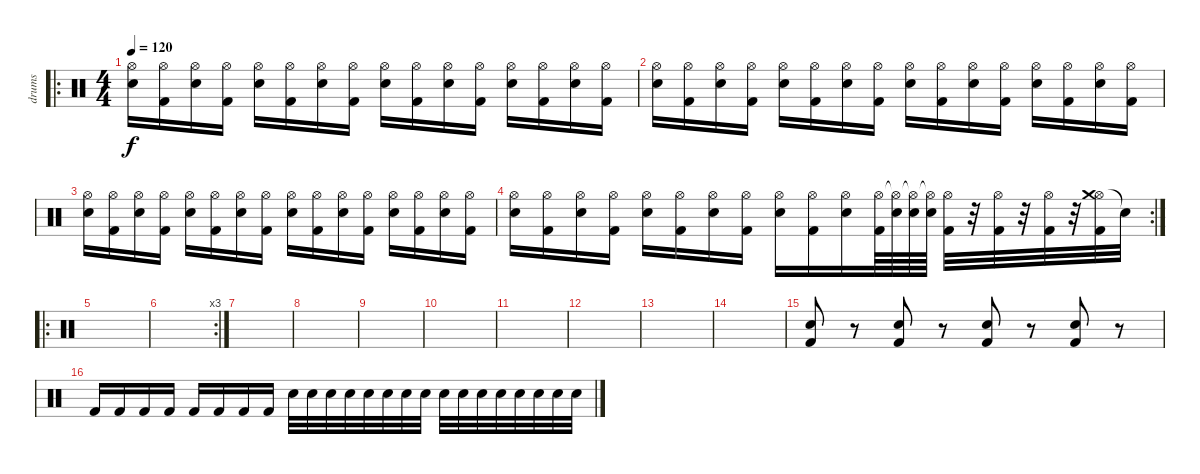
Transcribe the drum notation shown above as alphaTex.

\track ("drums" "drums") {instrument percussion}
\staff {score}
\articulation defaults
\ro
\ts (4 4)
\tempo 120
\clef neutral
\ks c
("Hi-Hat (open)" "Electric Snare (hit)").16{dy f} ("Hi-Hat (open)" "Kick (hit) 2").16 ("Hi-Hat (open)" "Electric Snare (hit)").16 ("Hi-Hat (open)" "Kick (hit) 2").16 ("Hi-Hat (open)" "Electric Snare (hit)").16 ("Hi-Hat (open)" "Kick (hit) 2").16 ("Hi-Hat (open)" "Electric Snare (hit)").16 ("Hi-Hat (open)" "Kick (hit) 2").16 ("Hi-Hat (open)" "Electric Snare (hit)").16 ("Hi-Hat (open)" "Kick (hit) 2").16 ("Hi-Hat (open)" "Electric Snare (hit)").16 ("Hi-Hat (open)" "Kick (hit) 2").16 ("Hi-Hat (open)" "Electric Snare (hit)").16 ("Hi-Hat (open)" "Kick (hit) 2").16 ("Hi-Hat (open)" "Electric Snare (hit)").16 ("Hi-Hat (open)" "Kick (hit) 2").16 |
("Hi-Hat (open)" "Electric Snare (hit)").16 ("Hi-Hat (open)" "Kick (hit) 2").16 ("Hi-Hat (open)" "Electric Snare (hit)").16 ("Hi-Hat (open)" "Kick (hit) 2").16 ("Hi-Hat (open)" "Electric Snare (hit)").16 ("Hi-Hat (open)" "Kick (hit) 2").16 ("Hi-Hat (open)" "Electric Snare (hit)").16 ("Hi-Hat (open)" "Kick (hit) 2").16 ("Hi-Hat (open)" "Electric Snare (hit)").16 ("Hi-Hat (open)" "Kick (hit) 2").16 ("Hi-Hat (open)" "Electric Snare (hit)").16 ("Hi-Hat (open)" "Kick (hit) 2").16 ("Hi-Hat (open)" "Electric Snare (hit)").16 ("Hi-Hat (open)" "Kick (hit) 2").16 ("Hi-Hat (open)" "Electric Snare (hit)").16 ("Hi-Hat (open)" "Kick (hit) 2").16 |
("Hi-Hat (open)" "Electric Snare (hit)").16 ("Hi-Hat (open)" "Kick (hit) 2").16 ("Hi-Hat (open)" "Electric Snare (hit)").16 ("Hi-Hat (open)" "Kick (hit) 2").16 ("Hi-Hat (open)" "Electric Snare (hit)").16 ("Hi-Hat (open)" "Kick (hit) 2").16 ("Hi-Hat (open)" "Electric Snare (hit)").16 ("Hi-Hat (open)" "Kick (hit) 2").16 ("Hi-Hat (open)" "Electric Snare (hit)").16 ("Hi-Hat (open)" "Kick (hit) 2").16 ("Hi-Hat (open)" "Electric Snare (hit)").16 ("Hi-Hat (open)" "Kick (hit) 2").16 ("Hi-Hat (open)" "Electric Snare (hit)").16 ("Hi-Hat (open)" "Kick (hit) 2").16 ("Hi-Hat (open)" "Electric Snare (hit)").16 ("Hi-Hat (open)" "Kick (hit) 2").16 |
\rc 2
("Hi-Hat (open)" "Electric Snare (hit)").16 ("Hi-Hat (open)" "Kick (hit) 2").16 ("Hi-Hat (open)" "Electric Snare (hit)").16 ("Hi-Hat (open)" "Kick (hit) 2").16 ("Hi-Hat (open)" "Electric Snare (hit)").16 ("Hi-Hat (open)" "Kick (hit) 2").16 ("Hi-Hat (open)" "Electric Snare (hit)").16 ("Hi-Hat (open)" "Kick (hit) 2").16 ("Hi-Hat (open)" "Electric Snare (hit)").16 ("Hi-Hat (open)" "Kick (hit) 2").16 ("Hi-Hat (open)" "Electric Snare (hit)").16 ("Hi-Hat (open)" "Kick (hit) 2").64 ("Hi-Hat (open)"{t} "Electric Snare (hit)").64 ("Hi-Hat (open)"{t} "Electric Snare (hit)").64 ("Hi-Hat (open)"{t} "Electric Snare (hit)").64 ("Hi-Hat (open)" "Kick (hit) 2").32 r.32 ("Hi-Hat (open)" "Kick (hit) 2").32 r.32 ("Hi-Hat (open)" "Kick (hit) 2").32 r.32 ("Hi-Hat (open)" "Crash medium (hit)" "Kick (hit) 2").32 "Snare (hit)"{t}.32 |
\ro
|
\rc 3
|
|
|
|
|
|
|
|
|
("Kick (hit) 2" "Electric Snare (hit)").8 r.8 ("Kick (hit) 2" "Electric Snare (hit)").8 r.8 ("Kick (hit) 2" "Electric Snare (hit)").8 r.8 ("Kick (hit) 2" "Electric Snare (hit)").8 r.8 |
"Kick (hit) 2".16 "Kick (hit) 2".16 "Kick (hit) 2".16 "Kick (hit) 2".16 "Kick (hit) 2".16 "Kick (hit) 2".16 "Kick (hit) 2".16 "Kick (hit) 2".16 "Electric Snare (hit)".32 "Electric Snare (hit)".32 "Electric Snare (hit)".32 "Electric Snare (hit)".32 "Electric Snare (hit)".32 "Electric Snare (hit)".32 "Electric Snare (hit)".32 "Electric Snare (hit)".32 "Electric Snare (hit)".32 "Electric Snare (hit)".32 "Electric Snare (hit)".32 "Electric Snare (hit)".32 "Electric Snare (hit)".32 "Electric Snare (hit)".32 "Electric Snare (hit)".32 "Electric Snare (hit)".32
